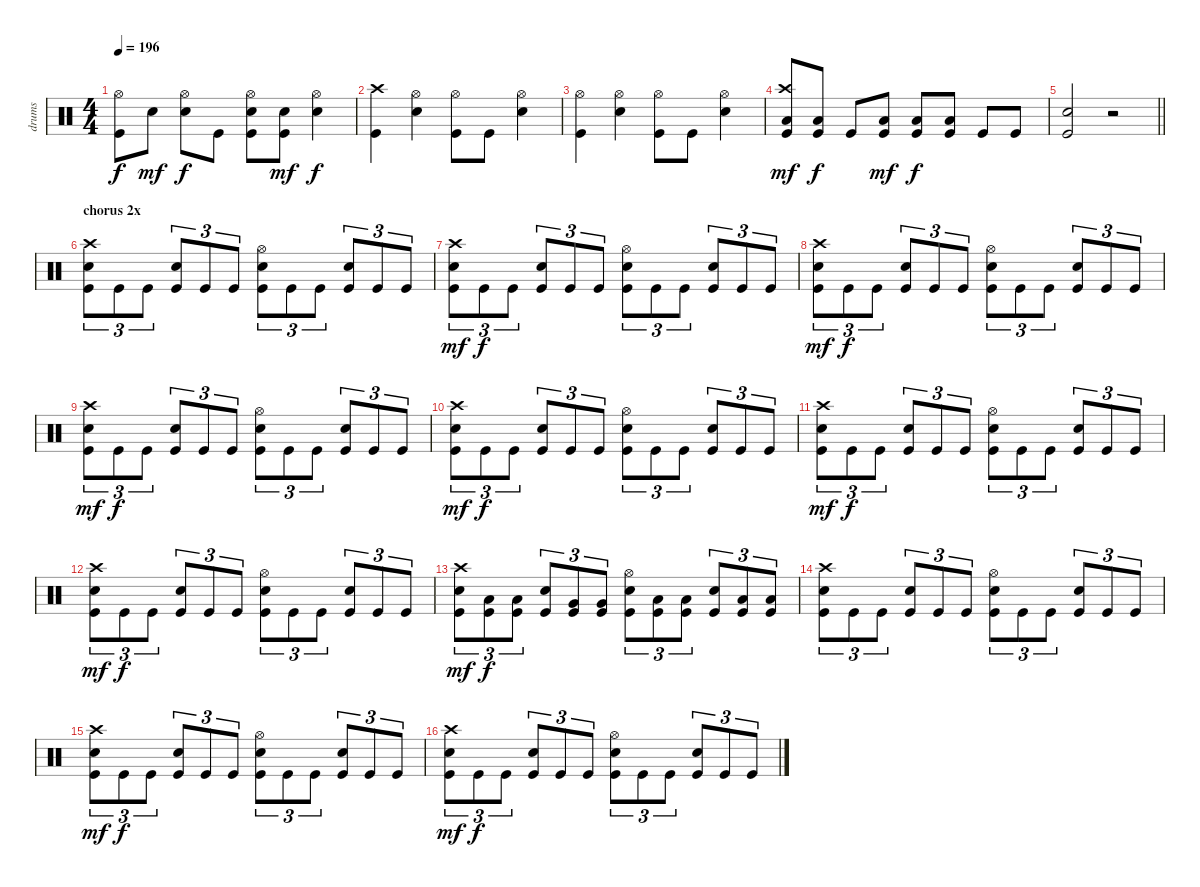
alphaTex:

\track ("drums" "drums") {instrument percussion}
\staff {score}
\articulation defaults
\ts (4 4)
\tempo 196
\clef neutral
\ks c
("Hi-Hat (open)" "Kick (hit)").8{dy f} "Electric Snare (hit)".8{dy mf} ("Hi-Hat (open)" "Electric Snare (hit)").8{dy f} "Kick (hit)".8 ("Hi-Hat (open)" "Electric Snare (hit)" "Kick (hit)").8 ("Electric Snare (hit)" "Kick (hit)").8{dy mf} ("Hi-Hat (open)" "Electric Snare (hit)").4{dy f} |
("Crash high (hit)" "Kick (hit)").4 ("Hi-Hat (open)" "Electric Snare (hit)").4 ("Hi-Hat (open)" "Kick (hit)").8 "Kick (hit)".8 ("Hi-Hat (open)" "Electric Snare (hit)").4 |
("Hi-Hat (open)" "Kick (hit)").4 ("Hi-Hat (open)" "Electric Snare (hit)").4 ("Hi-Hat (open)" "Kick (hit)").8 "Kick (hit)".8 ("Hi-Hat (open)" "Electric Snare (hit)").4 |
("Crash high (hit)" "Low Floor Tom (hit)" "Kick (hit)").8{dy mf} ("Low Floor Tom (hit)" "Kick (hit)").8{dy f} "Kick (hit)".8 ("Low Floor Tom (hit)" "Kick (hit)").8{dy mf} ("Low Floor Tom (hit)" "Kick (hit)").8{dy f} ("Low Floor Tom (hit)" "Kick (hit)").8 "Kick (hit)".8 "Kick (hit)".8 |
\barLineRight lightlight
("Electric Snare (hit)" "Kick (hit)").2 r.2 |
\section ("" "chorus 2x")
("Crash high (hit)" "Electric Snare (hit)" "Kick (hit)").8{tu (3 2)} "Kick (hit)".8{tu (3 2)} "Kick (hit)".8{tu (3 2)} ("Electric Snare (hit)" "Kick (hit)").8{tu (3 2)} "Kick (hit)".8{tu (3 2)} "Kick (hit)".8{tu (3 2)} ("Hi-Hat (open)" "Electric Snare (hit)" "Kick (hit)").8{tu (3 2)} "Kick (hit)".8{tu (3 2)} "Kick (hit)".8{tu (3 2)} ("Electric Snare (hit)" "Kick (hit)").8{tu (3 2)} "Kick (hit)".8{tu (3 2)} "Kick (hit)".8{tu (3 2)} |
("Crash high (hit)" "Electric Snare (hit)" "Kick (hit)").8{tu (3 2) dy mf} "Kick (hit)".8{tu (3 2) dy f} "Kick (hit)".8{tu (3 2)} ("Electric Snare (hit)" "Kick (hit)").8{tu (3 2)} "Kick (hit)".8{tu (3 2)} "Kick (hit)".8{tu (3 2)} ("Hi-Hat (open)" "Electric Snare (hit)" "Kick (hit)").8{tu (3 2)} "Kick (hit)".8{tu (3 2)} "Kick (hit)".8{tu (3 2)} ("Electric Snare (hit)" "Kick (hit)").8{tu (3 2)} "Kick (hit)".8{tu (3 2)} "Kick (hit)".8{tu (3 2)} |
("Crash high (hit)" "Electric Snare (hit)" "Kick (hit)").8{tu (3 2) dy mf} "Kick (hit)".8{tu (3 2) dy f} "Kick (hit)".8{tu (3 2)} ("Electric Snare (hit)" "Kick (hit)").8{tu (3 2)} "Kick (hit)".8{tu (3 2)} "Kick (hit)".8{tu (3 2)} ("Hi-Hat (open)" "Electric Snare (hit)" "Kick (hit)").8{tu (3 2)} "Kick (hit)".8{tu (3 2)} "Kick (hit)".8{tu (3 2)} ("Electric Snare (hit)" "Kick (hit)").8{tu (3 2)} "Kick (hit)".8{tu (3 2)} "Kick (hit)".8{tu (3 2)} |
("Crash high (hit)" "Electric Snare (hit)" "Kick (hit)").8{tu (3 2) dy mf} "Kick (hit)".8{tu (3 2) dy f} "Kick (hit)".8{tu (3 2)} ("Electric Snare (hit)" "Kick (hit)").8{tu (3 2)} "Kick (hit)".8{tu (3 2)} "Kick (hit)".8{tu (3 2)} ("Hi-Hat (open)" "Electric Snare (hit)" "Kick (hit)").8{tu (3 2)} "Kick (hit)".8{tu (3 2)} "Kick (hit)".8{tu (3 2)} ("Electric Snare (hit)" "Kick (hit)").8{tu (3 2)} "Kick (hit)".8{tu (3 2)} "Kick (hit)".8{tu (3 2)} |
("Crash high (hit)" "Electric Snare (hit)" "Kick (hit)").8{tu (3 2) dy mf} "Kick (hit)".8{tu (3 2) dy f} "Kick (hit)".8{tu (3 2)} ("Electric Snare (hit)" "Kick (hit)").8{tu (3 2)} "Kick (hit)".8{tu (3 2)} "Kick (hit)".8{tu (3 2)} ("Hi-Hat (open)" "Electric Snare (hit)" "Kick (hit)").8{tu (3 2)} "Kick (hit)".8{tu (3 2)} "Kick (hit)".8{tu (3 2)} ("Electric Snare (hit)" "Kick (hit)").8{tu (3 2)} "Kick (hit)".8{tu (3 2)} "Kick (hit)".8{tu (3 2)} |
("Crash high (hit)" "Electric Snare (hit)" "Kick (hit)").8{tu (3 2) dy mf} "Kick (hit)".8{tu (3 2) dy f} "Kick (hit)".8{tu (3 2)} ("Electric Snare (hit)" "Kick (hit)").8{tu (3 2)} "Kick (hit)".8{tu (3 2)} "Kick (hit)".8{tu (3 2)} ("Hi-Hat (open)" "Electric Snare (hit)" "Kick (hit)").8{tu (3 2)} "Kick (hit)".8{tu (3 2)} "Kick (hit)".8{tu (3 2)} ("Electric Snare (hit)" "Kick (hit)").8{tu (3 2)} "Kick (hit)".8{tu (3 2)} "Kick (hit)".8{tu (3 2)} |
("Crash high (hit)" "Electric Snare (hit)" "Kick (hit)").8{tu (3 2) dy mf} "Kick (hit)".8{tu (3 2) dy f} "Kick (hit)".8{tu (3 2)} ("Electric Snare (hit)" "Kick (hit)").8{tu (3 2)} "Kick (hit)".8{tu (3 2)} "Kick (hit)".8{tu (3 2)} ("Hi-Hat (open)" "Electric Snare (hit)" "Kick (hit)").8{tu (3 2)} "Kick (hit)".8{tu (3 2)} "Kick (hit)".8{tu (3 2)} ("Electric Snare (hit)" "Kick (hit)").8{tu (3 2)} "Kick (hit)".8{tu (3 2)} "Kick (hit)".8{tu (3 2)} |
("Crash high (hit)" "Electric Snare (hit)" "Kick (hit)").8{tu (3 2) dy mf} ("Low Tom (hit)" "Kick (hit)").8{tu (3 2) dy f} ("Low Tom (hit)" "Kick (hit)").8{tu (3 2)} ("Electric Snare (hit)" "Kick (hit)").8{tu (3 2)} ("Very Low Tom (hit)" "Kick (hit)").8{tu (3 2)} ("Very Low Tom (hit)" "Kick (hit)").8{tu (3 2)} ("Hi-Hat (open)" "Electric Snare (hit)" "Kick (hit)").8{tu (3 2)} ("Low Floor Tom (hit)" "Kick (hit)").8{tu (3 2)} ("Low Floor Tom (hit)" "Kick (hit)").8{tu (3 2)} ("Electric Snare (hit)" "Kick (hit)").8{tu (3 2)} ("Low Floor Tom (hit)" "Kick (hit)").8{tu (3 2)} ("Low Floor Tom (hit)" "Kick (hit)").8{tu (3 2)} |
("Crash high (hit)" "Electric Snare (hit)" "Kick (hit)").8{tu (3 2)} "Kick (hit)".8{tu (3 2)} "Kick (hit)".8{tu (3 2)} ("Electric Snare (hit)" "Kick (hit)").8{tu (3 2)} "Kick (hit)".8{tu (3 2)} "Kick (hit)".8{tu (3 2)} ("Hi-Hat (open)" "Electric Snare (hit)" "Kick (hit)").8{tu (3 2)} "Kick (hit)".8{tu (3 2)} "Kick (hit)".8{tu (3 2)} ("Electric Snare (hit)" "Kick (hit)").8{tu (3 2)} "Kick (hit)".8{tu (3 2)} "Kick (hit)".8{tu (3 2)} |
("Crash high (hit)" "Electric Snare (hit)" "Kick (hit)").8{tu (3 2) dy mf} "Kick (hit)".8{tu (3 2) dy f} "Kick (hit)".8{tu (3 2)} ("Electric Snare (hit)" "Kick (hit)").8{tu (3 2)} "Kick (hit)".8{tu (3 2)} "Kick (hit)".8{tu (3 2)} ("Hi-Hat (open)" "Electric Snare (hit)" "Kick (hit)").8{tu (3 2)} "Kick (hit)".8{tu (3 2)} "Kick (hit)".8{tu (3 2)} ("Electric Snare (hit)" "Kick (hit)").8{tu (3 2)} "Kick (hit)".8{tu (3 2)} "Kick (hit)".8{tu (3 2)} |
("Crash high (hit)" "Electric Snare (hit)" "Kick (hit)").8{tu (3 2) dy mf} "Kick (hit)".8{tu (3 2) dy f} "Kick (hit)".8{tu (3 2)} ("Electric Snare (hit)" "Kick (hit)").8{tu (3 2)} "Kick (hit)".8{tu (3 2)} "Kick (hit)".8{tu (3 2)} ("Hi-Hat (open)" "Electric Snare (hit)" "Kick (hit)").8{tu (3 2)} "Kick (hit)".8{tu (3 2)} "Kick (hit)".8{tu (3 2)} ("Electric Snare (hit)" "Kick (hit)").8{tu (3 2)} "Kick (hit)".8{tu (3 2)} "Kick (hit)".8{tu (3 2)}
